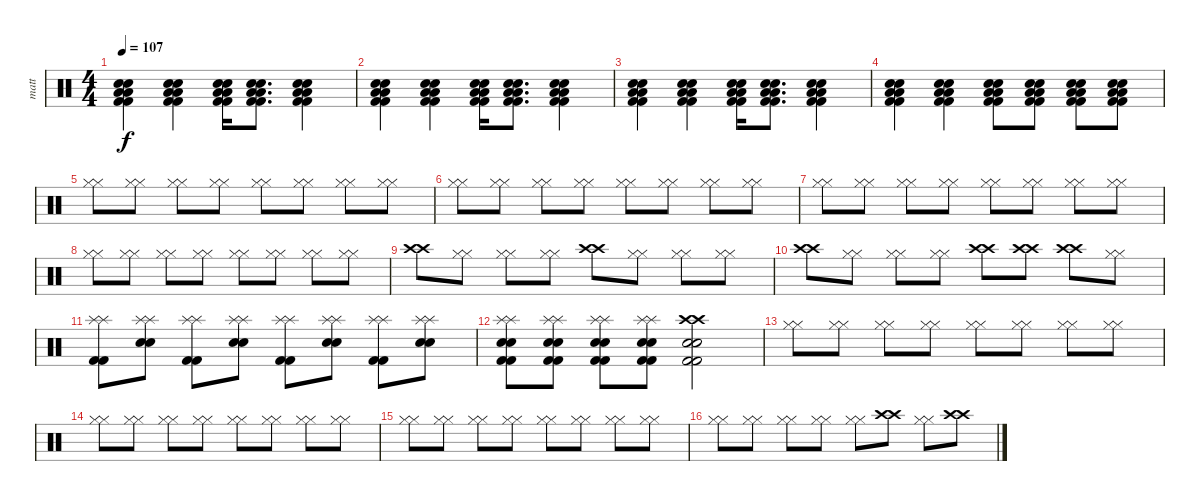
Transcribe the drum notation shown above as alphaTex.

\track ("matt" "matt") {instrument percussion}
\staff {score}
\articulation defaults
\ts (4 4)
\tempo 107
\clef neutral
\ks c
("Low Tom (hit)" "Low Tom (hit)" "Kick (hit) 2" "Kick (hit) 2" "Snare (hit) 2" "Snare (hit) 2").4{dy f} ("Low Tom (hit)" "Low Tom (hit)" "Kick (hit) 2" "Kick (hit) 2" "Snare (hit) 2" "Snare (hit) 2").4 ("Low Tom (hit)" "Low Tom (hit)" "Kick (hit) 2" "Kick (hit) 2" "Snare (hit) 2" "Snare (hit) 2").16 ("Low Tom (hit)" "Low Tom (hit)" "Kick (hit) 2" "Kick (hit) 2" "Snare (hit) 2" "Snare (hit) 2").8{d} ("Low Tom (hit)" "Low Tom (hit)" "Kick (hit) 2" "Kick (hit) 2" "Snare (hit) 2" "Snare (hit) 2").4 |
("Low Tom (hit)" "Low Tom (hit)" "Kick (hit) 2" "Kick (hit) 2" "Snare (hit) 2" "Snare (hit) 2").4 ("Low Tom (hit)" "Low Tom (hit)" "Kick (hit) 2" "Kick (hit) 2" "Snare (hit) 2" "Snare (hit) 2").4 ("Low Tom (hit)" "Low Tom (hit)" "Kick (hit) 2" "Kick (hit) 2" "Snare (hit) 2" "Snare (hit) 2").16 ("Low Tom (hit)" "Low Tom (hit)" "Kick (hit) 2" "Kick (hit) 2" "Snare (hit) 2" "Snare (hit) 2").8{d} ("Low Tom (hit)" "Low Tom (hit)" "Kick (hit) 2" "Kick (hit) 2" "Snare (hit) 2" "Snare (hit) 2").4 |
("Low Tom (hit)" "Low Tom (hit)" "Kick (hit) 2" "Kick (hit) 2" "Snare (hit) 2" "Snare (hit) 2").4 ("Low Tom (hit)" "Low Tom (hit)" "Kick (hit) 2" "Kick (hit) 2" "Snare (hit) 2" "Snare (hit) 2").4 ("Low Tom (hit)" "Low Tom (hit)" "Kick (hit) 2" "Kick (hit) 2" "Snare (hit) 2" "Snare (hit) 2").16 ("Low Tom (hit)" "Low Tom (hit)" "Kick (hit) 2" "Kick (hit) 2" "Snare (hit) 2" "Snare (hit) 2").8{d} ("Low Tom (hit)" "Low Tom (hit)" "Kick (hit) 2" "Kick (hit) 2" "Snare (hit) 2" "Snare (hit) 2").4 |
("Low Tom (hit)" "Low Tom (hit)" "Kick (hit) 2" "Kick (hit) 2" "Snare (hit) 2" "Snare (hit) 2").4 ("Low Tom (hit)" "Low Tom (hit)" "Kick (hit) 2" "Kick (hit) 2" "Snare (hit) 2" "Snare (hit) 2").4 ("Low Tom (hit)" "Low Tom (hit)" "Kick (hit) 2" "Kick (hit) 2" "Snare (hit) 2" "Snare (hit) 2").8 ("Low Tom (hit)" "Low Tom (hit)" "Kick (hit) 2" "Kick (hit) 2" "Snare (hit) 2" "Snare (hit) 2").8 ("Low Tom (hit)" "Low Tom (hit)" "Kick (hit) 2" "Kick (hit) 2" "Snare (hit) 2" "Snare (hit) 2").8 ("Low Tom (hit)" "Low Tom (hit)" "Kick (hit) 2" "Kick (hit) 2" "Snare (hit) 2" "Snare (hit) 2").8 |
("Hi-Hat (closed)" "Hi-Hat (closed)").8 ("Hi-Hat (closed)" "Hi-Hat (closed)").8 ("Hi-Hat (closed)" "Hi-Hat (closed)").8 ("Hi-Hat (closed)" "Hi-Hat (closed)").8 ("Hi-Hat (closed)" "Hi-Hat (closed)").8 ("Hi-Hat (closed)" "Hi-Hat (closed)").8 ("Hi-Hat (closed)" "Hi-Hat (closed)").8 ("Hi-Hat (closed)" "Hi-Hat (closed)").8 |
("Hi-Hat (closed)" "Hi-Hat (closed)").8 ("Hi-Hat (closed)" "Hi-Hat (closed)").8 ("Hi-Hat (closed)" "Hi-Hat (closed)").8 ("Hi-Hat (closed)" "Hi-Hat (closed)").8 ("Hi-Hat (closed)" "Hi-Hat (closed)").8 ("Hi-Hat (closed)" "Hi-Hat (closed)").8 ("Hi-Hat (closed)" "Hi-Hat (closed)").8 ("Hi-Hat (closed)" "Hi-Hat (closed)").8 |
("Hi-Hat (closed)" "Hi-Hat (closed)").8 ("Hi-Hat (closed)" "Hi-Hat (closed)").8 ("Hi-Hat (closed)" "Hi-Hat (closed)").8 ("Hi-Hat (closed)" "Hi-Hat (closed)").8 ("Hi-Hat (closed)" "Hi-Hat (closed)").8 ("Hi-Hat (closed)" "Hi-Hat (closed)").8 ("Hi-Hat (closed)" "Hi-Hat (closed)").8 ("Hi-Hat (closed)" "Hi-Hat (closed)").8 |
("Hi-Hat (closed)" "Hi-Hat (closed)").8 ("Hi-Hat (closed)" "Hi-Hat (closed)").8 ("Hi-Hat (closed)" "Hi-Hat (closed)").8 ("Hi-Hat (closed)" "Hi-Hat (closed)").8 ("Hi-Hat (closed)" "Hi-Hat (closed)").8 ("Hi-Hat (closed)" "Hi-Hat (closed)").8 ("Hi-Hat (closed)" "Hi-Hat (closed)").8 ("Hi-Hat (closed)" "Hi-Hat (closed)").8 |
("Crash high (hit)" "Crash high (hit)").8 ("Hi-Hat (closed)" "Hi-Hat (closed)").8 ("Hi-Hat (closed)" "Hi-Hat (closed)").8 ("Hi-Hat (closed)" "Hi-Hat (closed)").8 ("Crash high (hit)" "Crash high (hit)").8 ("Hi-Hat (closed)" "Hi-Hat (closed)").8 ("Hi-Hat (closed)" "Hi-Hat (closed)").8 ("Hi-Hat (closed)" "Hi-Hat (closed)").8 |
("Crash high (hit)" "Crash high (hit)").8 ("Hi-Hat (closed)" "Hi-Hat (closed)").8 ("Hi-Hat (closed)" "Hi-Hat (closed)").8 ("Hi-Hat (closed)" "Hi-Hat (closed)").8 ("Crash high (hit)" "Crash high (hit)").8 ("Crash high (hit)" "Crash high (hit)").8 ("Crash high (hit)" "Crash high (hit)").8 ("Hi-Hat (closed)" "Hi-Hat (closed)").8 |
("Splash (hit)" "Splash (hit)" "Kick (hit) 2" "Kick (hit) 2").8 ("Splash (hit)" "Splash (hit)" "Snare (hit) 2" "Snare (hit) 2").8 ("Splash (hit)" "Splash (hit)" "Kick (hit) 2" "Kick (hit) 2").8 ("Splash (hit)" "Splash (hit)" "Snare (hit) 2" "Snare (hit) 2").8 ("Splash (hit)" "Splash (hit)" "Kick (hit) 2" "Kick (hit) 2").8 ("Splash (hit)" "Splash (hit)" "Snare (hit) 2" "Snare (hit) 2").8 ("Splash (hit)" "Splash (hit)" "Kick (hit) 2" "Kick (hit) 2").8 ("Splash (hit)" "Splash (hit)" "Snare (hit) 2" "Snare (hit) 2").8 |
("Splash (hit)" "Splash (hit)" "Kick (hit) 2" "Kick (hit) 2" "Snare (hit) 2" "Snare (hit) 2").8 ("Splash (hit)" "Splash (hit)" "Kick (hit) 2" "Kick (hit) 2" "Snare (hit) 2" "Snare (hit) 2").8 ("Splash (hit)" "Splash (hit)" "Kick (hit) 2" "Kick (hit) 2" "Snare (hit) 2" "Snare (hit) 2").8 ("Splash (hit)" "Splash (hit)" "Kick (hit) 2" "Kick (hit) 2" "Snare (hit) 2" "Snare (hit) 2").8 ("Crash high (hit)" "Crash high (hit)" "Kick (hit) 2" "Kick (hit) 2" "Snare (hit) 2" "Snare (hit) 2").2 |
("Hi-Hat (closed)" "Hi-Hat (closed)").8 ("Hi-Hat (closed)" "Hi-Hat (closed)").8 ("Hi-Hat (closed)" "Hi-Hat (closed)").8 ("Hi-Hat (closed)" "Hi-Hat (closed)").8 ("Hi-Hat (closed)" "Hi-Hat (closed)").8 ("Hi-Hat (closed)" "Hi-Hat (closed)").8 ("Hi-Hat (closed)" "Hi-Hat (closed)").8 ("Hi-Hat (closed)" "Hi-Hat (closed)").8 |
("Hi-Hat (closed)" "Hi-Hat (closed)").8 ("Hi-Hat (closed)" "Hi-Hat (closed)").8 ("Hi-Hat (closed)" "Hi-Hat (closed)").8 ("Hi-Hat (closed)" "Hi-Hat (closed)").8 ("Hi-Hat (closed)" "Hi-Hat (closed)").8 ("Hi-Hat (closed)" "Hi-Hat (closed)").8 ("Hi-Hat (closed)" "Hi-Hat (closed)").8 ("Hi-Hat (closed)" "Hi-Hat (closed)").8 |
("Hi-Hat (closed)" "Hi-Hat (closed)").8 ("Hi-Hat (closed)" "Hi-Hat (closed)").8 ("Hi-Hat (closed)" "Hi-Hat (closed)").8 ("Hi-Hat (closed)" "Hi-Hat (closed)").8 ("Hi-Hat (closed)" "Hi-Hat (closed)").8 ("Hi-Hat (closed)" "Hi-Hat (closed)").8 ("Hi-Hat (closed)" "Hi-Hat (closed)").8 ("Hi-Hat (closed)" "Hi-Hat (closed)").8 |
("Hi-Hat (closed)" "Hi-Hat (closed)").8 ("Hi-Hat (closed)" "Hi-Hat (closed)").8 ("Hi-Hat (closed)" "Hi-Hat (closed)").8 ("Hi-Hat (closed)" "Hi-Hat (closed)").8 ("Hi-Hat (closed)" "Hi-Hat (closed)").8 ("Crash high (hit)" "Crash high (hit)").8 ("Hi-Hat (closed)" "Hi-Hat (closed)").8 ("Crash high (hit)" "Crash high (hit)").8
